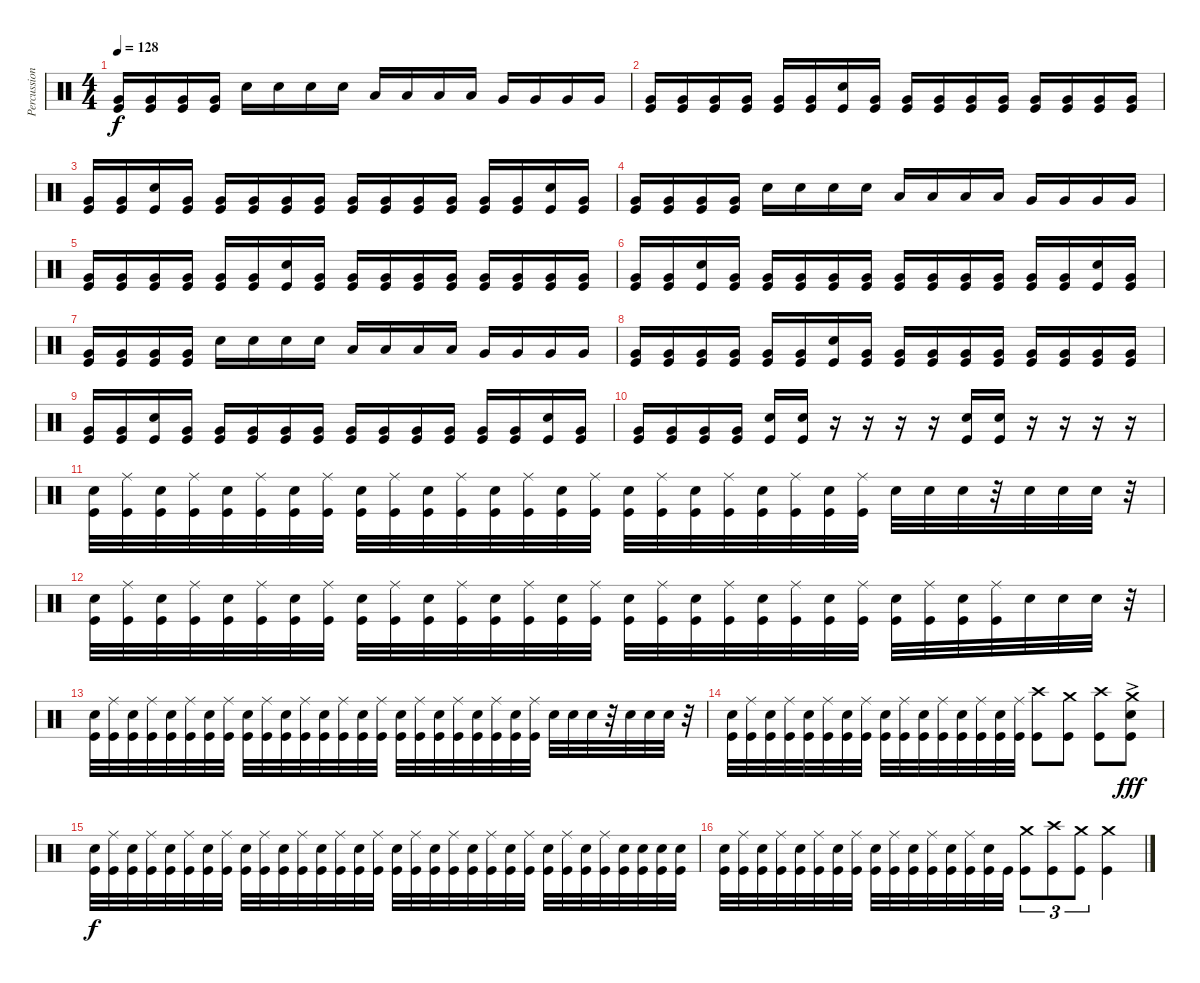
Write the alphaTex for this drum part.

\track ("Percussion" "Percussion") {instrument percussion}
\staff {score}
\articulation defaults
\ts (4 4)
\tempo 128
\clef neutral
\ks c
("Very Low Tom (hit)" "Kick (hit)").16{dy f} ("Very Low Tom (hit)" "Kick (hit)").16 ("Very Low Tom (hit)" "Kick (hit)").16 ("Very Low Tom (hit)" "Kick (hit)").16 "Electric Snare (hit)".16 "Electric Snare (hit)".16 "Electric Snare (hit)".16 "Electric Snare (hit)".16 "Low Tom (hit)".16 "Low Tom (hit)".16 "Low Tom (hit)".16 "Low Tom (hit)".16 "Very Low Tom (hit)".16 "Very Low Tom (hit)".16 "Very Low Tom (hit)".16 "Very Low Tom (hit)".16 |
("Very Low Tom (hit)" "Kick (hit)").16 ("Very Low Tom (hit)" "Kick (hit)").16 ("Very Low Tom (hit)" "Kick (hit)").16 ("Very Low Tom (hit)" "Kick (hit)").16 ("Very Low Tom (hit)" "Kick (hit)").16 ("Very Low Tom (hit)" "Kick (hit)").16 ("Electric Snare (hit)" "Kick (hit)").16 ("Very Low Tom (hit)" "Kick (hit)").16 ("Very Low Tom (hit)" "Kick (hit)").16 ("Very Low Tom (hit)" "Kick (hit)").16 ("Very Low Tom (hit)" "Kick (hit)").16 ("Very Low Tom (hit)" "Kick (hit)").16 ("Very Low Tom (hit)" "Kick (hit)").16 ("Very Low Tom (hit)" "Kick (hit)").16 ("Very Low Tom (hit)" "Kick (hit)").16 ("Very Low Tom (hit)" "Kick (hit)").16 |
("Very Low Tom (hit)" "Kick (hit)").16 ("Very Low Tom (hit)" "Kick (hit)").16 ("Electric Snare (hit)" "Kick (hit)").16 ("Very Low Tom (hit)" "Kick (hit)").16 ("Very Low Tom (hit)" "Kick (hit)").16 ("Very Low Tom (hit)" "Kick (hit)").16 ("Very Low Tom (hit)" "Kick (hit)").16 ("Very Low Tom (hit)" "Kick (hit)").16 ("Very Low Tom (hit)" "Kick (hit)").16 ("Very Low Tom (hit)" "Kick (hit)").16 ("Very Low Tom (hit)" "Kick (hit)").16 ("Very Low Tom (hit)" "Kick (hit)").16 ("Very Low Tom (hit)" "Kick (hit)").16 ("Very Low Tom (hit)" "Kick (hit)").16 ("Electric Snare (hit)" "Kick (hit)").16 ("Very Low Tom (hit)" "Kick (hit)").16 |
("Very Low Tom (hit)" "Kick (hit)").16 ("Very Low Tom (hit)" "Kick (hit)").16 ("Very Low Tom (hit)" "Kick (hit)").16 ("Very Low Tom (hit)" "Kick (hit)").16 "Electric Snare (hit)".16 "Electric Snare (hit)".16 "Electric Snare (hit)".16 "Electric Snare (hit)".16 "Low Tom (hit)".16 "Low Tom (hit)".16 "Low Tom (hit)".16 "Low Tom (hit)".16 "Very Low Tom (hit)".16 "Very Low Tom (hit)".16 "Very Low Tom (hit)".16 "Very Low Tom (hit)".16 |
("Very Low Tom (hit)" "Kick (hit)").16 ("Very Low Tom (hit)" "Kick (hit)").16 ("Very Low Tom (hit)" "Kick (hit)").16 ("Very Low Tom (hit)" "Kick (hit)").16 ("Very Low Tom (hit)" "Kick (hit)").16 ("Very Low Tom (hit)" "Kick (hit)").16 ("Electric Snare (hit)" "Kick (hit)").16 ("Very Low Tom (hit)" "Kick (hit)").16 ("Very Low Tom (hit)" "Kick (hit)").16 ("Very Low Tom (hit)" "Kick (hit)").16 ("Very Low Tom (hit)" "Kick (hit)").16 ("Very Low Tom (hit)" "Kick (hit)").16 ("Very Low Tom (hit)" "Kick (hit)").16 ("Very Low Tom (hit)" "Kick (hit)").16 ("Very Low Tom (hit)" "Kick (hit)").16 ("Very Low Tom (hit)" "Kick (hit)").16 |
("Very Low Tom (hit)" "Kick (hit)").16 ("Very Low Tom (hit)" "Kick (hit)").16 ("Electric Snare (hit)" "Kick (hit)").16 ("Very Low Tom (hit)" "Kick (hit)").16 ("Very Low Tom (hit)" "Kick (hit)").16 ("Very Low Tom (hit)" "Kick (hit)").16 ("Very Low Tom (hit)" "Kick (hit)").16 ("Very Low Tom (hit)" "Kick (hit)").16 ("Very Low Tom (hit)" "Kick (hit)").16 ("Very Low Tom (hit)" "Kick (hit)").16 ("Very Low Tom (hit)" "Kick (hit)").16 ("Very Low Tom (hit)" "Kick (hit)").16 ("Very Low Tom (hit)" "Kick (hit)").16 ("Very Low Tom (hit)" "Kick (hit)").16 ("Electric Snare (hit)" "Kick (hit)").16 ("Very Low Tom (hit)" "Kick (hit)").16 |
("Very Low Tom (hit)" "Kick (hit)").16 ("Very Low Tom (hit)" "Kick (hit)").16 ("Very Low Tom (hit)" "Kick (hit)").16 ("Very Low Tom (hit)" "Kick (hit)").16 "Electric Snare (hit)".16 "Electric Snare (hit)".16 "Electric Snare (hit)".16 "Electric Snare (hit)".16 "Low Tom (hit)".16 "Low Tom (hit)".16 "Low Tom (hit)".16 "Low Tom (hit)".16 "Very Low Tom (hit)".16 "Very Low Tom (hit)".16 "Very Low Tom (hit)".16 "Very Low Tom (hit)".16 |
("Very Low Tom (hit)" "Kick (hit)").16 ("Very Low Tom (hit)" "Kick (hit)").16 ("Very Low Tom (hit)" "Kick (hit)").16 ("Very Low Tom (hit)" "Kick (hit)").16 ("Very Low Tom (hit)" "Kick (hit)").16 ("Very Low Tom (hit)" "Kick (hit)").16 ("Electric Snare (hit)" "Kick (hit)").16 ("Very Low Tom (hit)" "Kick (hit)").16 ("Very Low Tom (hit)" "Kick (hit)").16 ("Very Low Tom (hit)" "Kick (hit)").16 ("Very Low Tom (hit)" "Kick (hit)").16 ("Very Low Tom (hit)" "Kick (hit)").16 ("Very Low Tom (hit)" "Kick (hit)").16 ("Very Low Tom (hit)" "Kick (hit)").16 ("Very Low Tom (hit)" "Kick (hit)").16 ("Very Low Tom (hit)" "Kick (hit)").16 |
("Very Low Tom (hit)" "Kick (hit)").16 ("Very Low Tom (hit)" "Kick (hit)").16 ("Electric Snare (hit)" "Kick (hit)").16 ("Very Low Tom (hit)" "Kick (hit)").16 ("Very Low Tom (hit)" "Kick (hit)").16 ("Very Low Tom (hit)" "Kick (hit)").16 ("Very Low Tom (hit)" "Kick (hit)").16 ("Very Low Tom (hit)" "Kick (hit)").16 ("Very Low Tom (hit)" "Kick (hit)").16 ("Very Low Tom (hit)" "Kick (hit)").16 ("Very Low Tom (hit)" "Kick (hit)").16 ("Very Low Tom (hit)" "Kick (hit)").16 ("Very Low Tom (hit)" "Kick (hit)").16 ("Very Low Tom (hit)" "Kick (hit)").16 ("Electric Snare (hit)" "Kick (hit)").16 ("Very Low Tom (hit)" "Kick (hit)").16 |
("Very Low Tom (hit)" "Kick (hit)").16 ("Very Low Tom (hit)" "Kick (hit)").16 ("Very Low Tom (hit)" "Kick (hit)").16 ("Very Low Tom (hit)" "Kick (hit)").16 ("Electric Snare (hit)" "Kick (hit)").16 ("Electric Snare (hit)" "Kick (hit)").16 r.16 r.16 r.16 r.16 ("Electric Snare (hit)" "Kick (hit)").16 ("Electric Snare (hit)" "Kick (hit)").16 r.16 r.16 r.16 r.16 |
("Electric Snare (hit)" "Kick (hit)").32 ("Ride (middle)" "Kick (hit)").32 ("Electric Snare (hit)" "Kick (hit)").32 ("Ride (middle)" "Kick (hit)").32 ("Electric Snare (hit)" "Kick (hit)").32 ("Ride (middle)" "Kick (hit)").32 ("Electric Snare (hit)" "Kick (hit)").32 ("Ride (middle)" "Kick (hit)").32 ("Electric Snare (hit)" "Kick (hit)").32 ("Ride (middle)" "Kick (hit)").32 ("Electric Snare (hit)" "Kick (hit)").32 ("Ride (middle)" "Kick (hit)").32 ("Electric Snare (hit)" "Kick (hit)").32 ("Ride (middle)" "Kick (hit)").32 ("Electric Snare (hit)" "Kick (hit)").32 ("Ride (middle)" "Kick (hit)").32 ("Electric Snare (hit)" "Kick (hit)").32 ("Ride (middle)" "Kick (hit)").32 ("Electric Snare (hit)" "Kick (hit)").32 ("Ride (middle)" "Kick (hit)").32 ("Electric Snare (hit)" "Kick (hit)").32 ("Ride (middle)" "Kick (hit)").32 ("Electric Snare (hit)" "Kick (hit)").32 ("Ride (middle)" "Kick (hit)").32 "Electric Snare (hit)".32 "Electric Snare (hit)".32 "Electric Snare (hit)".32 r.32 "Electric Snare (hit)".32 "Electric Snare (hit)".32 "Electric Snare (hit)".32 r.32 |
("Electric Snare (hit)" "Kick (hit)").32 ("Ride (middle)" "Kick (hit)").32 ("Electric Snare (hit)" "Kick (hit)").32 ("Ride (middle)" "Kick (hit)").32 ("Electric Snare (hit)" "Kick (hit)").32 ("Ride (middle)" "Kick (hit)").32 ("Electric Snare (hit)" "Kick (hit)").32 ("Ride (middle)" "Kick (hit)").32 ("Electric Snare (hit)" "Kick (hit)").32 ("Ride (middle)" "Kick (hit)").32 ("Electric Snare (hit)" "Kick (hit)").32 ("Ride (middle)" "Kick (hit)").32 ("Electric Snare (hit)" "Kick (hit)").32 ("Ride (middle)" "Kick (hit)").32 ("Electric Snare (hit)" "Kick (hit)").32 ("Ride (middle)" "Kick (hit)").32 ("Electric Snare (hit)" "Kick (hit)").32 ("Ride (middle)" "Kick (hit)").32 ("Electric Snare (hit)" "Kick (hit)").32 ("Ride (middle)" "Kick (hit)").32 ("Electric Snare (hit)" "Kick (hit)").32 ("Ride (middle)" "Kick (hit)").32 ("Electric Snare (hit)" "Kick (hit)").32 ("Ride (middle)" "Kick (hit)").32 ("Electric Snare (hit)" "Kick (hit)").32 ("Ride (middle)" "Kick (hit)").32 ("Electric Snare (hit)" "Kick (hit)").32 ("Ride (middle)" "Kick (hit)").32 "Electric Snare (hit)".32 "Electric Snare (hit)".32 "Electric Snare (hit)".32 r.32 |
("Electric Snare (hit)" "Kick (hit)").32 ("Ride (middle)" "Kick (hit)").32 ("Electric Snare (hit)" "Kick (hit)").32 ("Ride (middle)" "Kick (hit)").32 ("Electric Snare (hit)" "Kick (hit)").32 ("Ride (middle)" "Kick (hit)").32 ("Electric Snare (hit)" "Kick (hit)").32 ("Ride (middle)" "Kick (hit)").32 ("Electric Snare (hit)" "Kick (hit)").32 ("Ride (middle)" "Kick (hit)").32 ("Electric Snare (hit)" "Kick (hit)").32 ("Ride (middle)" "Kick (hit)").32 ("Electric Snare (hit)" "Kick (hit)").32 ("Ride (middle)" "Kick (hit)").32 ("Electric Snare (hit)" "Kick (hit)").32 ("Ride (middle)" "Kick (hit)").32 ("Electric Snare (hit)" "Kick (hit)").32 ("Ride (middle)" "Kick (hit)").32 ("Electric Snare (hit)" "Kick (hit)").32 ("Ride (middle)" "Kick (hit)").32 ("Electric Snare (hit)" "Kick (hit)").32 ("Ride (middle)" "Kick (hit)").32 ("Electric Snare (hit)" "Kick (hit)").32 ("Ride (middle)" "Kick (hit)").32 "Electric Snare (hit)".32 "Electric Snare (hit)".32 "Electric Snare (hit)".32 r.32 "Electric Snare (hit)".32 "Electric Snare (hit)".32 "Electric Snare (hit)".32 r.32 |
("Electric Snare (hit)" "Kick (hit)").32 ("Ride (middle)" "Kick (hit)").32 ("Electric Snare (hit)" "Kick (hit)").32 ("Ride (middle)" "Kick (hit)").32 ("Electric Snare (hit)" "Kick (hit)").32 ("Ride (middle)" "Kick (hit)").32 ("Electric Snare (hit)" "Kick (hit)").32 ("Ride (middle)" "Kick (hit)").32 ("Electric Snare (hit)" "Kick (hit)").32 ("Ride (middle)" "Kick (hit)").32 ("Electric Snare (hit)" "Kick (hit)").32 ("Ride (middle)" "Kick (hit)").32 ("Electric Snare (hit)" "Kick (hit)").32 ("Ride (middle)" "Kick (hit)").32 ("Electric Snare (hit)" "Kick (hit)").32 ("Ride (middle)" "Kick (hit)").32 ("Crash high (hit)" "Kick (hit)").8 ("Crash medium (hit)" "Kick (hit)").8 ("Crash high (hit)" "Kick (hit)").8 ("Crash medium (hit)" "Electric Snare (hit)"{ac} "Kick (hit)").8{dy fff} |
("Electric Snare (hit)" "Kick (hit)").32{dy f} ("Ride (middle)" "Kick (hit)").32 ("Electric Snare (hit)" "Kick (hit)").32 ("Ride (middle)" "Kick (hit)").32 ("Electric Snare (hit)" "Kick (hit)").32 ("Ride (middle)" "Kick (hit)").32 ("Electric Snare (hit)" "Kick (hit)").32 ("Ride (middle)" "Kick (hit)").32 ("Electric Snare (hit)" "Kick (hit)").32 ("Ride (middle)" "Kick (hit)").32 ("Electric Snare (hit)" "Kick (hit)").32 ("Ride (middle)" "Kick (hit)").32 ("Electric Snare (hit)" "Kick (hit)").32 ("Ride (middle)" "Kick (hit)").32 ("Electric Snare (hit)" "Kick (hit)").32 ("Ride (middle)" "Kick (hit)").32 ("Electric Snare (hit)" "Kick (hit)").32 ("Ride (middle)" "Kick (hit)").32 ("Electric Snare (hit)" "Kick (hit)").32 ("Ride (middle)" "Kick (hit)").32 ("Electric Snare (hit)" "Kick (hit)").32 ("Ride (middle)" "Kick (hit)").32 ("Electric Snare (hit)" "Kick (hit)").32 ("Ride (middle)" "Kick (hit)").32 ("Electric Snare (hit)" "Kick (hit)").32 ("Ride (middle)" "Kick (hit)").32 ("Electric Snare (hit)" "Kick (hit)").32 ("Ride (middle)" "Kick (hit)").32 ("Electric Snare (hit)" "Kick (hit)").32 ("Electric Snare (hit)" "Kick (hit)").32 ("Electric Snare (hit)" "Kick (hit)").32 ("Electric Snare (hit)" "Kick (hit)").32 |
("Electric Snare (hit)" "Kick (hit)").32 ("Ride (middle)" "Kick (hit)").32 ("Electric Snare (hit)" "Kick (hit)").32 ("Ride (middle)" "Kick (hit)").32 ("Electric Snare (hit)" "Kick (hit)").32 ("Ride (middle)" "Kick (hit)").32 ("Electric Snare (hit)" "Kick (hit)").32 ("Ride (middle)" "Kick (hit)").32 ("Electric Snare (hit)" "Kick (hit)").32 ("Ride (middle)" "Kick (hit)").32 ("Electric Snare (hit)" "Kick (hit)").32 ("Ride (middle)" "Kick (hit)").32 ("Electric Snare (hit)" "Kick (hit)").32 ("Ride (middle)" "Kick (hit)").32 ("Electric Snare (hit)" "Kick (hit)").32 "Kick (hit)".32 ("Crash medium (hit)" "Kick (hit)").8{tu (3 2)} ("Crash high (hit)" "Kick (hit)").8{tu (3 2)} ("Crash medium (hit)" "Kick (hit)").8{tu (3 2)} ("Crash medium (hit)" "Kick (hit)").4
